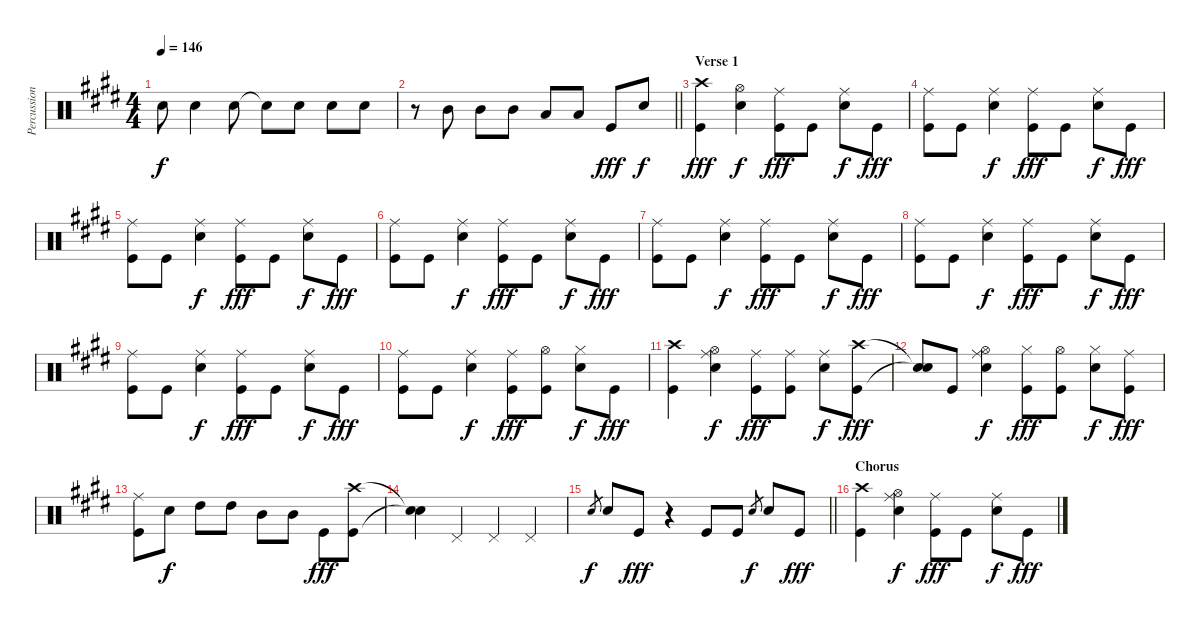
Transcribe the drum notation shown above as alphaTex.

\track ("Percussion" "Percussion") {instrument percussion}
\staff {score}
\articulation defaults
\ts (4 4)
\tempo 146
\clef neutral
\ks e "Snare (hit)"{t}.8{dy f} "Snare (hit) 2".4 "Snare (hit) 2".8 "Snare (hit)"{t}.8 "Snare (hit) 2".8 "Snare (hit) 2".8 "Snare (hit) 2".8
|
\barLineRight lightlight
r.8 "Mid Tom (hit)".8 "Mid Tom (hit)".8 "Mid Tom (hit)".8 "Low Tom (hit)".8 "Low Tom (hit)".8 "Kick (hit)".8{dy fff} "Snare (hit) 2".8{dy f} |
\section ("" "Verse 1")
("Crash high (hit)" "Kick (hit)").4{dy fff} ("Hi-Hat (open)" "Snare (hit) 2").4{dy f} ("Ride (middle)" "Kick (hit)").8{dy fff} "Kick (hit)".8 ("Ride (middle)" "Snare (hit) 2").8{dy f} "Kick (hit)".8{dy fff} |
("Ride (middle)" "Kick (hit)").8 "Kick (hit)".8 ("Ride (middle)" "Snare (hit) 2").4{dy f} ("Ride (middle)" "Kick (hit)").8{dy fff} "Kick (hit)".8 ("Ride (middle)" "Snare (hit) 2").8{dy f} "Kick (hit)".8{dy fff} |
("Ride (middle)" "Kick (hit)").8 "Kick (hit)".8 ("Ride (middle)" "Snare (hit) 2").4{dy f} ("Ride (middle)" "Kick (hit)").8{dy fff} "Kick (hit)".8 ("Ride (middle)" "Snare (hit) 2").8{dy f} "Kick (hit)".8{dy fff} |
("Ride (middle)" "Kick (hit)").8 "Kick (hit)".8 ("Ride (middle)" "Snare (hit) 2").4{dy f} ("Ride (middle)" "Kick (hit)").8{dy fff} "Kick (hit)".8 ("Ride (middle)" "Snare (hit) 2").8{dy f} "Kick (hit)".8{dy fff} |
("Ride (middle)" "Kick (hit)").8 "Kick (hit)".8 ("Ride (middle)" "Snare (hit) 2").4{dy f} ("Ride (middle)" "Kick (hit)").8{dy fff} "Kick (hit)".8 ("Ride (middle)" "Snare (hit) 2").8{dy f} "Kick (hit)".8{dy fff} |
("Ride (middle)" "Kick (hit)").8 "Kick (hit)".8 ("Ride (middle)" "Snare (hit) 2").4{dy f} ("Ride (middle)" "Kick (hit)").8{dy fff} "Kick (hit)".8 ("Ride (middle)" "Snare (hit) 2").8{dy f} "Kick (hit)".8{dy fff} |
("Ride (middle)" "Kick (hit)").8 "Kick (hit)".8 ("Ride (middle)" "Snare (hit) 2").4{dy f} ("Ride (middle)" "Kick (hit)").8{dy fff} "Kick (hit)".8 ("Ride (middle)" "Snare (hit) 2").8{dy f} "Kick (hit)".8{dy fff} |
("Ride (middle)" "Kick (hit)").8 "Kick (hit)".8 ("Ride (middle)" "Snare (hit) 2").4{dy f} ("Ride (middle)" "Kick (hit)").8{dy fff} ("Hi-Hat (open)" "Kick (hit)").8 ("Hi-Hat (closed)" "Snare (hit) 2").8{dy f} "Kick (hit)".8{dy fff} |
("Crash high (hit)" "Kick (hit)").4 ("Hi-Hat (open)" "Ride (middle)" "Snare (hit) 2").4{dy f} ("Ride (middle)" "Kick (hit)").8{dy fff} ("Ride (middle)" "Kick (hit)").8 ("Ride (middle)" "Snare (hit) 2").8{dy f} ("Crash high (hit)" "Kick (hit)").8{dy fff} |
("Snare (hit)"{t} "Snare (hit)"{t}).8 "Kick (hit)".8 ("Hi-Hat (open)" "Ride (middle)" "Snare (hit) 2").4{dy f} ("Hi-Hat (closed)" "Kick (hit)").8{dy fff} ("Hi-Hat (open)" "Kick (hit)").8 ("Hi-Hat (closed)" "Snare (hit) 2").8{dy f} ("Ride (middle)" "Kick (hit)").8{dy fff} |
("Ride (middle)" "Kick (hit)").8 "Snare (hit) 2".8{dy f} "High Tom (hit)".8 "High Tom (hit)".8 "Mid Tom (hit)".8 "Mid Tom (hit)".8 "Kick (hit)".8{dy fff} ("Crash high (hit)" "Kick (hit)").8 |
("Snare (hit)"{t} "Snare (hit)"{t}).4 "Pedal Hi-Hat (hit)".4 "Pedal Hi-Hat (hit)".4 "Pedal Hi-Hat (hit)".4 |
\barLineRight lightlight "Snare (hit) 2".8{gr dy f} "Snare (hit) 2".8 "Kick (hit)".8{dy fff}
r.4 "Kick (hit)".8 "Kick (hit)".8 "Snare (hit) 2".8{gr dy f} "Snare (hit) 2".8 "Kick (hit)".8{dy fff} |
\section ("" "Chorus")
("Crash high (hit)" "Kick (hit)").4 ("Hi-Hat (open)" "Ride (middle)" "Snare (hit) 2").4{dy f} ("Ride (middle)" "Kick (hit)").8{dy fff} "Kick (hit)".8 ("Ride (middle)" "Snare (hit) 2").8{dy f} "Kick (hit)".8{dy fff}
